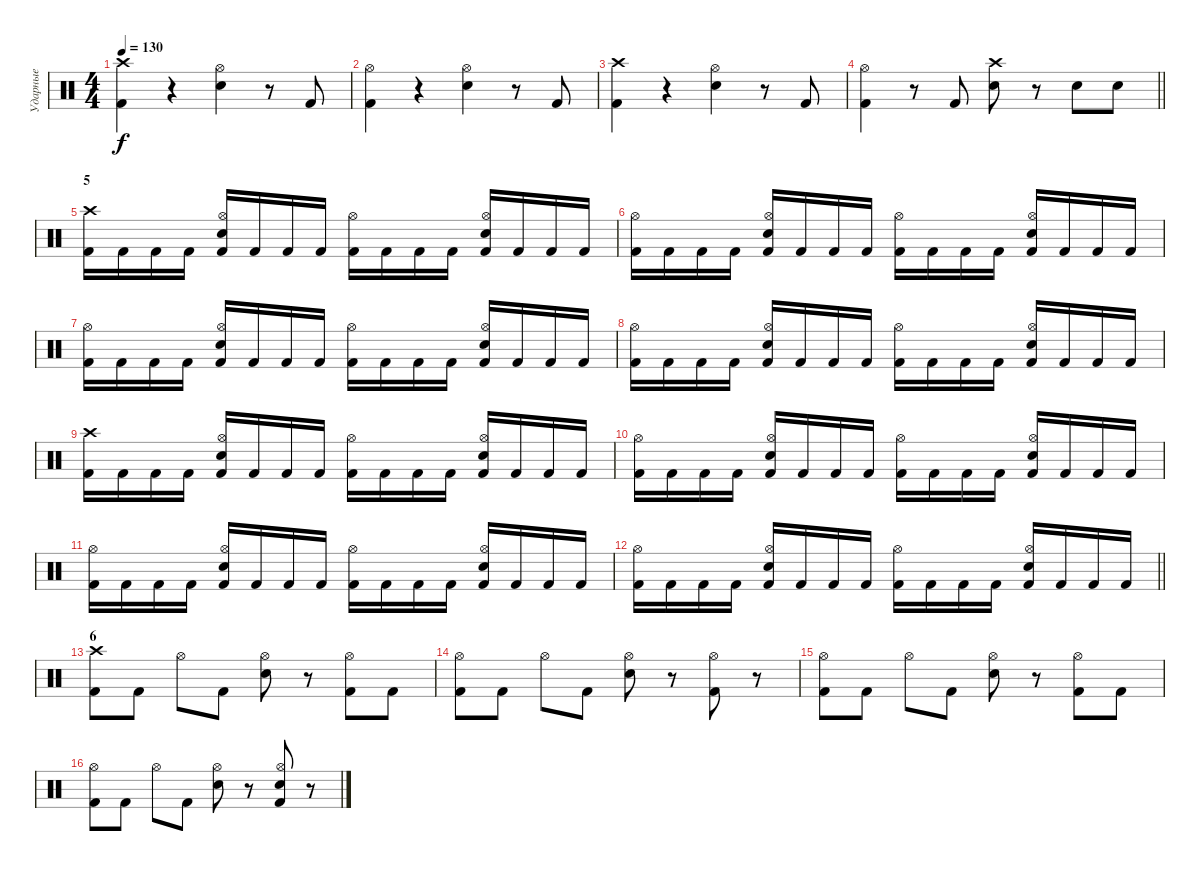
\track ("Ударные" "Ударные") {instrument percussion}
\staff {score}
\articulation defaults
\ts (4 4)
\tempo 130
\clef neutral
\ks c
("Kick (hit) 2" "Crash high (hit)").4{dy f} r.4 ("Hi-Hat (open)" "Electric Snare (hit)").4 r.8 "Kick (hit) 2".8 |
("Kick (hit) 2" "Hi-Hat (open)").4 r.4 ("Hi-Hat (open)" "Electric Snare (hit)").4 r.8 "Kick (hit) 2".8 |
("Kick (hit) 2" "Crash high (hit)").4 r.4 ("Hi-Hat (open)" "Electric Snare (hit)").4 r.8 "Kick (hit) 2".8 |
\barLineRight lightlight
("Kick (hit) 2" "Hi-Hat (open)").4 r.8 "Kick (hit) 2".8 ("Electric Snare (hit)" "Crash high (hit)").8 r.8 "Electric Snare (hit)".8 "Electric Snare (hit)".8 |
\section ("" "5")
("Kick (hit) 2" "Crash high (hit)").16 "Kick (hit) 2".16 "Kick (hit) 2".16 "Kick (hit) 2".16 ("Kick (hit) 2" "Electric Snare (hit)" "Hi-Hat (open)").16 "Kick (hit) 2".16 "Kick (hit) 2".16 "Kick (hit) 2".16 ("Kick (hit) 2" "Hi-Hat (open)").16 "Kick (hit) 2".16 "Kick (hit) 2".16 "Kick (hit) 2".16 ("Kick (hit) 2" "Electric Snare (hit)" "Hi-Hat (open)").16 "Kick (hit) 2".16 "Kick (hit) 2".16 "Kick (hit) 2".16 |
("Kick (hit) 2" "Hi-Hat (open)").16 "Kick (hit) 2".16 "Kick (hit) 2".16 "Kick (hit) 2".16 ("Kick (hit) 2" "Electric Snare (hit)" "Hi-Hat (open)").16 "Kick (hit) 2".16 "Kick (hit) 2".16 "Kick (hit) 2".16 ("Kick (hit) 2" "Hi-Hat (open)").16 "Kick (hit) 2".16 "Kick (hit) 2".16 "Kick (hit) 2".16 ("Kick (hit) 2" "Electric Snare (hit)" "Hi-Hat (open)").16 "Kick (hit) 2".16 "Kick (hit) 2".16 "Kick (hit) 2".16 |
("Kick (hit) 2" "Hi-Hat (open)").16 "Kick (hit) 2".16 "Kick (hit) 2".16 "Kick (hit) 2".16 ("Kick (hit) 2" "Electric Snare (hit)" "Hi-Hat (open)").16 "Kick (hit) 2".16 "Kick (hit) 2".16 "Kick (hit) 2".16 ("Kick (hit) 2" "Hi-Hat (open)").16 "Kick (hit) 2".16 "Kick (hit) 2".16 "Kick (hit) 2".16 ("Kick (hit) 2" "Electric Snare (hit)" "Hi-Hat (open)").16 "Kick (hit) 2".16 "Kick (hit) 2".16 "Kick (hit) 2".16 |
("Kick (hit) 2" "Hi-Hat (open)").16 "Kick (hit) 2".16 "Kick (hit) 2".16 "Kick (hit) 2".16 ("Kick (hit) 2" "Electric Snare (hit)" "Hi-Hat (open)").16 "Kick (hit) 2".16 "Kick (hit) 2".16 "Kick (hit) 2".16 ("Kick (hit) 2" "Hi-Hat (open)").16 "Kick (hit) 2".16 "Kick (hit) 2".16 "Kick (hit) 2".16 ("Kick (hit) 2" "Electric Snare (hit)" "Hi-Hat (open)").16 "Kick (hit) 2".16 "Kick (hit) 2".16 "Kick (hit) 2".16 |
("Kick (hit) 2" "Crash high (hit)").16 "Kick (hit) 2".16 "Kick (hit) 2".16 "Kick (hit) 2".16 ("Kick (hit) 2" "Electric Snare (hit)" "Hi-Hat (open)").16 "Kick (hit) 2".16 "Kick (hit) 2".16 "Kick (hit) 2".16 ("Kick (hit) 2" "Hi-Hat (open)").16 "Kick (hit) 2".16 "Kick (hit) 2".16 "Kick (hit) 2".16 ("Kick (hit) 2" "Electric Snare (hit)" "Hi-Hat (open)").16 "Kick (hit) 2".16 "Kick (hit) 2".16 "Kick (hit) 2".16 |
("Kick (hit) 2" "Hi-Hat (open)").16 "Kick (hit) 2".16 "Kick (hit) 2".16 "Kick (hit) 2".16 ("Kick (hit) 2" "Electric Snare (hit)" "Hi-Hat (open)").16 "Kick (hit) 2".16 "Kick (hit) 2".16 "Kick (hit) 2".16 ("Kick (hit) 2" "Hi-Hat (open)").16 "Kick (hit) 2".16 "Kick (hit) 2".16 "Kick (hit) 2".16 ("Kick (hit) 2" "Electric Snare (hit)" "Hi-Hat (open)").16 "Kick (hit) 2".16 "Kick (hit) 2".16 "Kick (hit) 2".16 |
("Kick (hit) 2" "Hi-Hat (open)").16 "Kick (hit) 2".16 "Kick (hit) 2".16 "Kick (hit) 2".16 ("Kick (hit) 2" "Electric Snare (hit)" "Hi-Hat (open)").16 "Kick (hit) 2".16 "Kick (hit) 2".16 "Kick (hit) 2".16 ("Kick (hit) 2" "Hi-Hat (open)").16 "Kick (hit) 2".16 "Kick (hit) 2".16 "Kick (hit) 2".16 ("Kick (hit) 2" "Electric Snare (hit)" "Hi-Hat (open)").16 "Kick (hit) 2".16 "Kick (hit) 2".16 "Kick (hit) 2".16 |
\barLineRight lightlight
("Kick (hit) 2" "Hi-Hat (open)").16 "Kick (hit) 2".16 "Kick (hit) 2".16 "Kick (hit) 2".16 ("Kick (hit) 2" "Electric Snare (hit)" "Hi-Hat (open)").16 "Kick (hit) 2".16 "Kick (hit) 2".16 "Kick (hit) 2".16 ("Kick (hit) 2" "Hi-Hat (open)").16 "Kick (hit) 2".16 "Kick (hit) 2".16 "Kick (hit) 2".16 ("Kick (hit) 2" "Electric Snare (hit)" "Hi-Hat (open)").16 "Kick (hit) 2".16 "Kick (hit) 2".16 "Kick (hit) 2".16 |
\section ("" "6")
("Kick (hit) 2" "Crash high (hit)").8 "Kick (hit) 2".8 "Hi-Hat (open)".8 "Kick (hit) 2".8 ("Electric Snare (hit)" "Hi-Hat (open)").8 r.8 ("Kick (hit) 2" "Hi-Hat (open)").8 "Kick (hit) 2".8 |
("Kick (hit) 2" "Hi-Hat (open)").8 "Kick (hit) 2".8 "Hi-Hat (open)".8 "Kick (hit) 2".8 ("Electric Snare (hit)" "Hi-Hat (open)").8 r.8 ("Kick (hit) 2" "Hi-Hat (open)").8 r.8 |
("Kick (hit) 2" "Hi-Hat (open)").8 "Kick (hit) 2".8 "Hi-Hat (open)".8 "Kick (hit) 2".8 ("Electric Snare (hit)" "Hi-Hat (open)").8 r.8 ("Kick (hit) 2" "Hi-Hat (open)").8 "Kick (hit) 2".8 |
("Kick (hit) 2" "Hi-Hat (open)").8 "Kick (hit) 2".8 "Hi-Hat (open)".8 "Kick (hit) 2".8 ("Electric Snare (hit)" "Hi-Hat (open)").8 r.8 ("Kick (hit) 2" "Electric Snare (hit)" "Hi-Hat (open)").8 r.8
